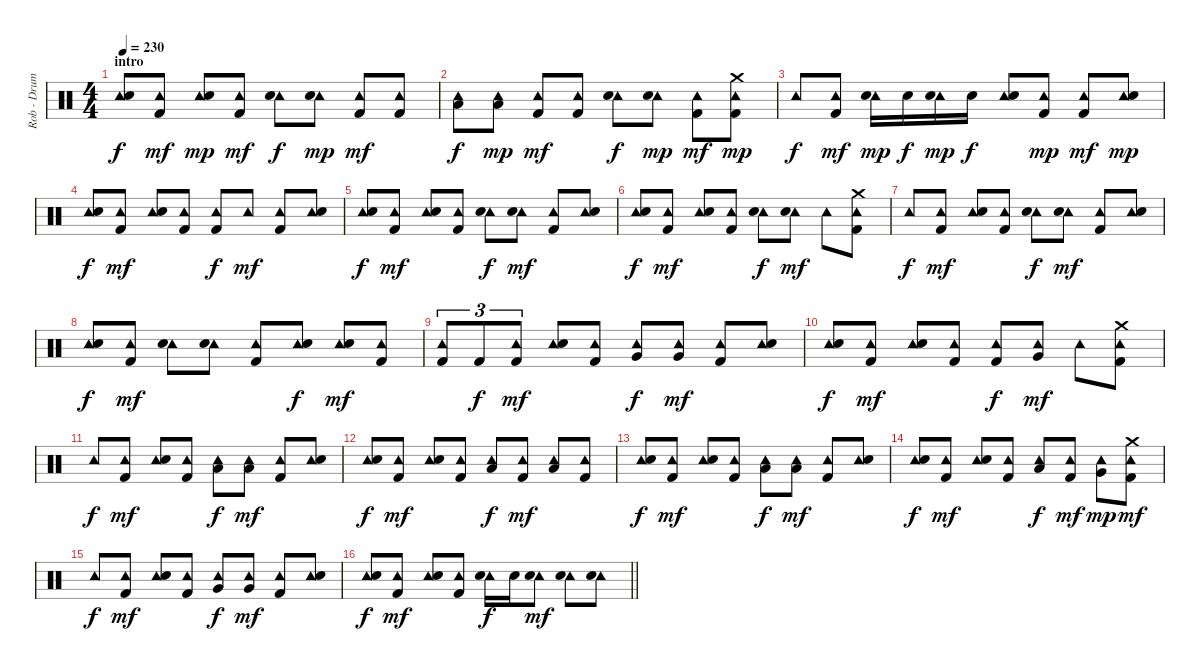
\track ("Rob - Drums" "Rob - Drum") {instrument percussion}
\staff {score}
\articulation defaults
\ts (4 4)
\section ("" "intro")
\tempo 230
\clef neutral
\ks c
("Tambourine (hit)" "Electric Snare (hit)").8{dy f} ("Tambourine (hit)" "Kick (hit) 2").8{dy mf} ("Tambourine (hit)" "Electric Snare (hit)").8{dy mp} ("Tambourine (hit)" "Kick (hit) 2").8{dy mf} ("Tambourine (hit)" "Electric Snare (hit)").8{dy f} ("Tambourine (hit)" "Electric Snare (hit)").8{dy mp} ("Tambourine (hit)" "Kick (hit) 2").8{dy mf} ("Tambourine (hit)" "Kick (hit) 2").8 |
("Tambourine (hit)" "Low Tom (hit)").8{dy f} ("Tambourine (hit)" "Low Tom (hit)").8{dy mp} ("Tambourine (hit)" "Kick (hit) 2").8{dy mf} ("Tambourine (hit)" "Kick (hit) 2").8 ("Tambourine (hit)" "Electric Snare (hit)").8{dy f} ("Tambourine (hit)" "Electric Snare (hit)").8{dy mp} ("Tambourine (hit)" "Kick (hit) 2").8{dy mf} ("Tambourine (hit)" "Crash medium (hit)" "Kick (hit) 2").8{dy mp} |
"Tambourine (hit)".8{dy f} ("Tambourine (hit)" "Kick (hit) 2").8{dy mf} ("Tambourine (hit)" "Electric Snare (hit)").16{dy mp} "Electric Snare (hit)".16{dy f} ("Tambourine (hit)" "Electric Snare (hit)").16{dy mp} "Electric Snare (hit)".16{dy f} ("Tambourine (hit)" "Electric Snare (hit)").8 ("Tambourine (hit)" "Kick (hit) 2").8{dy mp} ("Tambourine (hit)" "Kick (hit) 2").8{dy mf} ("Tambourine (hit)" "Electric Snare (hit)").8{dy mp} |
("Tambourine (hit)" "Electric Snare (hit)").8{dy f} ("Tambourine (hit)" "Kick (hit) 2").8{dy mf} ("Tambourine (hit)" "Electric Snare (hit)").8 ("Tambourine (hit)" "Kick (hit) 2").8 ("Tambourine (hit)" "Kick (hit) 2").8{dy f} "Tambourine (hit)".8{dy mf} ("Tambourine (hit)" "Kick (hit) 2").8 ("Tambourine (hit)" "Electric Snare (hit)").8 |
("Tambourine (hit)" "Electric Snare (hit)").8{dy f} ("Tambourine (hit)" "Kick (hit) 2").8{dy mf} ("Tambourine (hit)" "Electric Snare (hit)").8 ("Tambourine (hit)" "Kick (hit) 2").8 ("Tambourine (hit)" "Electric Snare (hit)").8{dy f} ("Tambourine (hit)" "Electric Snare (hit)").8{dy mf} ("Tambourine (hit)" "Kick (hit) 2").8 ("Tambourine (hit)" "Electric Snare (hit)").8 |
("Tambourine (hit)" "Electric Snare (hit)").8{dy f} ("Tambourine (hit)" "Kick (hit) 2").8{dy mf} ("Tambourine (hit)" "Electric Snare (hit)").8 ("Tambourine (hit)" "Kick (hit) 2").8 ("Tambourine (hit)" "Electric Snare (hit)").8{dy f} ("Tambourine (hit)" "Electric Snare (hit)").8{dy mf} "Tambourine (hit)".8 ("Tambourine (hit)" "Crash medium (hit)" "Kick (hit) 2").8 |
"Tambourine (hit)".8{dy f} ("Tambourine (hit)" "Kick (hit) 2").8{dy mf} ("Tambourine (hit)" "Electric Snare (hit)").8 ("Tambourine (hit)" "Kick (hit) 2").8 ("Tambourine (hit)" "Electric Snare (hit)").8{dy f} ("Tambourine (hit)" "Electric Snare (hit)").8{dy mf} ("Tambourine (hit)" "Kick (hit) 2").8 ("Tambourine (hit)" "Electric Snare (hit)").8 |
("Tambourine (hit)" "Electric Snare (hit)").8{dy f} ("Tambourine (hit)" "Kick (hit) 2").8{dy mf} ("Tambourine (hit)" "Electric Snare (hit)").8 ("Tambourine (hit)" "Electric Snare (hit)").8 ("Tambourine (hit)" "Kick (hit) 2").8 ("Tambourine (hit)" "Electric Snare (hit)").8{dy f} ("Tambourine (hit)" "Electric Snare (hit)").8{dy mf} ("Tambourine (hit)" "Kick (hit) 2").8 |
("Tambourine (hit)" "Kick (hit) 2").8{tu (3 2)} "Kick (hit) 2".8{tu (3 2) dy f} ("Tambourine (hit)" "Kick (hit) 2").8{tu (3 2) dy mf} ("Tambourine (hit)" "Electric Snare (hit)").8 ("Tambourine (hit)" "Kick (hit) 2").8 ("Tambourine (hit)" "Very Low Tom (hit)").8{dy f} ("Tambourine (hit)" "Very Low Tom (hit)").8{dy mf} ("Tambourine (hit)" "Kick (hit) 2").8 ("Tambourine (hit)" "Electric Snare (hit)").8 |
("Tambourine (hit)" "Electric Snare (hit)").8{dy f} ("Tambourine (hit)" "Kick (hit) 2").8{dy mf} ("Tambourine (hit)" "Electric Snare (hit)").8 ("Tambourine (hit)" "Kick (hit) 2").8 ("Tambourine (hit)" "Kick (hit) 2").8{dy f} ("Tambourine (hit)" "Very Low Tom (hit)").8{dy mf} "Tambourine (hit)".8 ("Tambourine (hit)" "Crash medium (hit)" "Kick (hit) 2").8 |
"Tambourine (hit)".8{dy f} ("Tambourine (hit)" "Kick (hit) 2").8{dy mf} ("Tambourine (hit)" "Electric Snare (hit)").8 ("Tambourine (hit)" "Kick (hit) 2").8 ("Tambourine (hit)" "Low Tom (hit)").8{dy f} ("Tambourine (hit)" "Low Tom (hit)").8{dy mf} ("Tambourine (hit)" "Kick (hit) 2").8 ("Tambourine (hit)" "Electric Snare (hit)").8 |
("Tambourine (hit)" "Electric Snare (hit)").8{dy f} ("Tambourine (hit)" "Kick (hit) 2").8{dy mf} ("Tambourine (hit)" "Electric Snare (hit)").8 ("Tambourine (hit)" "Kick (hit) 2").8 ("Tambourine (hit)" "Low Tom (hit)").8{dy f} ("Tambourine (hit)" "Kick (hit) 2").8{dy mf} ("Tambourine (hit)" "Low Tom (hit)").8 ("Tambourine (hit)" "Kick (hit) 2").8 |
("Tambourine (hit)" "Electric Snare (hit)").8{dy f} ("Tambourine (hit)" "Kick (hit) 2").8{dy mf} ("Tambourine (hit)" "Electric Snare (hit)").8 ("Tambourine (hit)" "Kick (hit) 2").8 ("Tambourine (hit)" "Low Tom (hit)").8{dy f} ("Tambourine (hit)" "Low Tom (hit)").8{dy mf} ("Tambourine (hit)" "Kick (hit) 2").8 ("Tambourine (hit)" "Electric Snare (hit)").8 |
("Tambourine (hit)" "Electric Snare (hit)").8{dy f} ("Tambourine (hit)" "Kick (hit) 2").8{dy mf} ("Tambourine (hit)" "Electric Snare (hit)").8 ("Tambourine (hit)" "Kick (hit) 2").8 ("Tambourine (hit)" "Low Tom (hit)").8{dy f} ("Tambourine (hit)" "Kick (hit) 2").8{dy mf} ("Tambourine (hit)" "Very Low Tom (hit)").8{dy mp} ("Tambourine (hit)" "Crash medium (hit)" "Kick (hit) 2").8{dy mf} |
"Tambourine (hit)".8{dy f} ("Tambourine (hit)" "Kick (hit) 2").8{dy mf} ("Tambourine (hit)" "Electric Snare (hit)").8 ("Tambourine (hit)" "Kick (hit) 2").8 ("Tambourine (hit)" "Very Low Tom (hit)").8{dy f} ("Tambourine (hit)" "Very Low Tom (hit)").8{dy mf} ("Tambourine (hit)" "Kick (hit) 2").8 ("Tambourine (hit)" "Electric Snare (hit)").8 |
\barLineRight lightlight
("Tambourine (hit)" "Electric Snare (hit)").8{dy f} ("Tambourine (hit)" "Kick (hit) 2").8{dy mf} ("Tambourine (hit)" "Electric Snare (hit)").8 ("Tambourine (hit)" "Kick (hit) 2").8 ("Tambourine (hit)" "Electric Snare (hit)").16{dy f} "Electric Snare (hit)".16 ("Tambourine (hit)" "Electric Snare (hit)").8{dy mf} ("Tambourine (hit)" "Electric Snare (hit)").8 ("Tambourine (hit)" "Electric Snare (hit)").8
